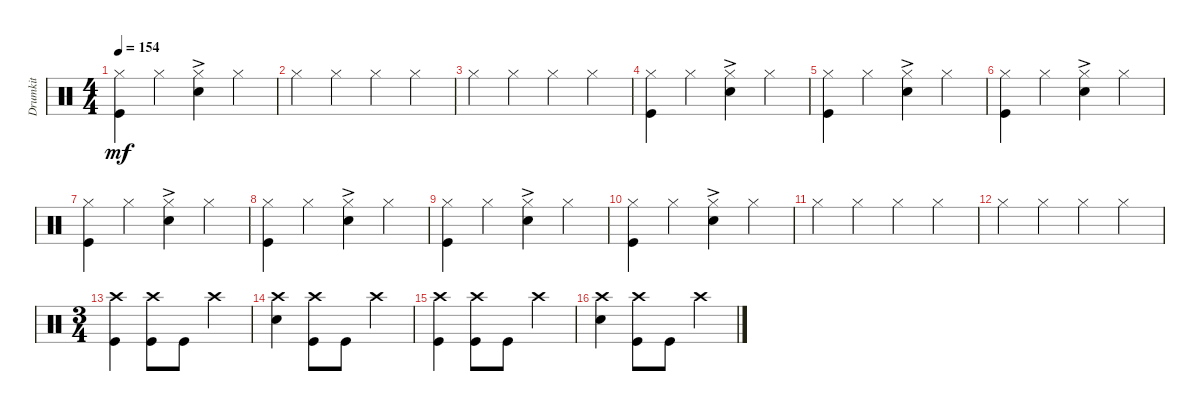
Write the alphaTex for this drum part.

\track ("Drumkit" "Drumkit") {instrument percussion}
\staff {score}
\articulation defaults
\ts (4 4)
\tempo 154
\clef neutral
\ks c
("Hi-Hat (closed)" "Kick (hit)").4{dy mf} "Hi-Hat (closed)".4 ("Hi-Hat (closed)" "Snare (hit) 2"{ac}).4 "Hi-Hat (closed)".4 |
"Hi-Hat (closed)".4 "Hi-Hat (closed)".4 "Hi-Hat (closed)".4 "Hi-Hat (closed)".4 |
"Hi-Hat (closed)".4 "Hi-Hat (closed)".4 "Hi-Hat (closed)".4 "Hi-Hat (closed)".4 |
("Hi-Hat (closed)" "Kick (hit)").4 "Hi-Hat (closed)".4 ("Hi-Hat (closed)" "Snare (hit) 2"{ac}).4 "Hi-Hat (closed)".4 |
("Hi-Hat (closed)" "Kick (hit)").4 "Hi-Hat (closed)".4 ("Hi-Hat (closed)" "Snare (hit) 2"{ac}).4 "Hi-Hat (closed)".4 |
("Hi-Hat (closed)" "Kick (hit)").4 "Hi-Hat (closed)".4 ("Hi-Hat (closed)" "Snare (hit) 2"{ac}).4 "Hi-Hat (closed)".4 |
("Hi-Hat (closed)" "Kick (hit)").4 "Hi-Hat (closed)".4 ("Hi-Hat (closed)" "Snare (hit) 2"{ac}).4 "Hi-Hat (closed)".4 |
("Hi-Hat (closed)" "Kick (hit)").4 "Hi-Hat (closed)".4 ("Hi-Hat (closed)" "Snare (hit) 2"{ac}).4 "Hi-Hat (closed)".4 |
("Hi-Hat (closed)" "Kick (hit)").4 "Hi-Hat (closed)".4 ("Hi-Hat (closed)" "Snare (hit) 2"{ac}).4 "Hi-Hat (closed)".4 |
("Hi-Hat (closed)" "Kick (hit)").4 "Hi-Hat (closed)".4 ("Hi-Hat (closed)" "Snare (hit) 2"{ac}).4 "Hi-Hat (closed)".4 |
"Hi-Hat (closed)".4 "Hi-Hat (closed)".4 "Hi-Hat (closed)".4 "Hi-Hat (closed)".4 |
"Hi-Hat (closed)".4 "Hi-Hat (closed)".4 "Hi-Hat (closed)".4 "Hi-Hat (closed)".4 |
\ts (3 4)
("Crash high (hit)" "Kick (hit)").4 ("Crash high (hit)" "Kick (hit)").8 "Kick (hit)".8 "Crash high (hit)".4 |
("Crash high (hit)" "Snare (hit) 2").4 ("Crash high (hit)" "Kick (hit)").8 "Kick (hit)".8 "Crash high (hit)".4 |
("Crash high (hit)" "Kick (hit)").4 ("Crash high (hit)" "Kick (hit)").8 "Kick (hit)".8 "Crash high (hit)".4 |
("Crash high (hit)" "Snare (hit) 2").4 ("Crash high (hit)" "Kick (hit)").8 "Kick (hit)".8 "Crash high (hit)".4
